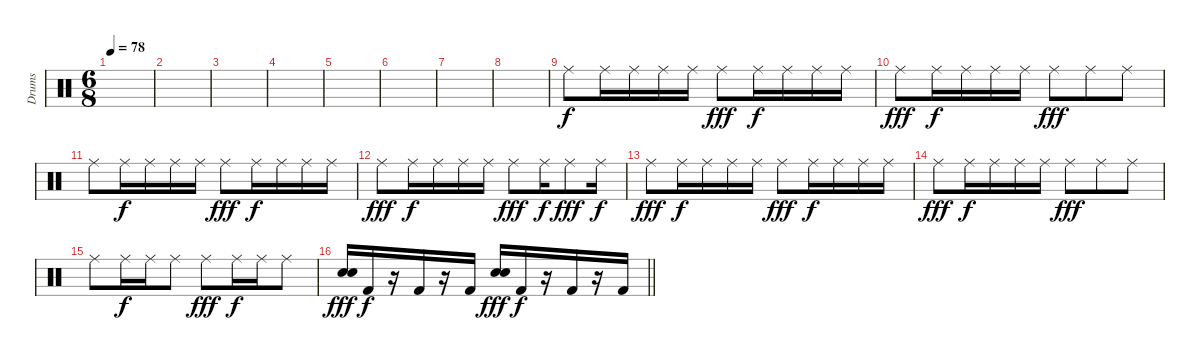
\track ("Drums" "Drums") {instrument percussion}
\staff {score}
\articulation defaults
\ts (6 8)
\tempo 78
\clef neutral
\ks c
|
|
|
|
|
|
|
|
"Ride (middle)".8 "Ride (middle)".16{dy f} "Ride (middle)".16 "Ride (middle)".16 "Ride (middle)".16 "Ride (middle)".8{dy fff} "Ride (middle)".16{dy f} "Ride (middle)".16 "Ride (middle)".16 "Ride (middle)".16 |
"Ride (middle)".8{dy fff} "Ride (middle)".16{dy f} "Ride (middle)".16 "Ride (middle)".16 "Ride (middle)".16 "Ride (middle)".8{dy fff} "Ride (middle)".8 "Ride (middle)".8 |
"Ride (middle)".8 "Ride (middle)".16{dy f} "Ride (middle)".16 "Ride (middle)".16 "Ride (middle)".16 "Ride (middle)".8{dy fff} "Ride (middle)".16{dy f} "Ride (middle)".16 "Ride (middle)".16 "Ride (middle)".16 |
"Ride (middle)".8{dy fff} "Ride (middle)".16{dy f} "Ride (middle)".16 "Ride (middle)".16 "Ride (middle)".16 "Ride (middle)".8{dy fff} "Ride (middle)".16{dy f} "Ride (middle)".8{dy fff} "Ride (middle)".16{dy f} |
"Ride (middle)".8{dy fff} "Ride (middle)".16{dy f} "Ride (middle)".16 "Ride (middle)".16 "Ride (middle)".16 "Ride (middle)".8{dy fff} "Ride (middle)".16{dy f} "Ride (middle)".16 "Ride (middle)".16 "Ride (middle)".16 |
"Ride (middle)".8{dy fff} "Ride (middle)".16{dy f} "Ride (middle)".16 "Ride (middle)".16 "Ride (middle)".16 "Ride (middle)".8{dy fff} "Ride (middle)".8 "Ride (middle)".8 |
"Ride (middle)".8 "Ride (middle)".16{dy f} "Ride (middle)".16 "Ride (middle)".8 "Ride (middle)".8{dy fff} "Ride (middle)".16{dy f} "Ride (middle)".16 "Ride (middle)".8 |
\barLineRight lightlight
("Snare (hit) 2" "Snare (hit) 2").16{dy fff} "Kick (hit) 2".16{dy f} r.16 "Kick (hit) 2".16 r.16 "Kick (hit) 2".16 ("Snare (hit) 2" "Snare (hit) 2").16{dy fff} "Kick (hit) 2".16{dy f} r.16 "Kick (hit) 2".16 r.16 "Kick (hit) 2".16
